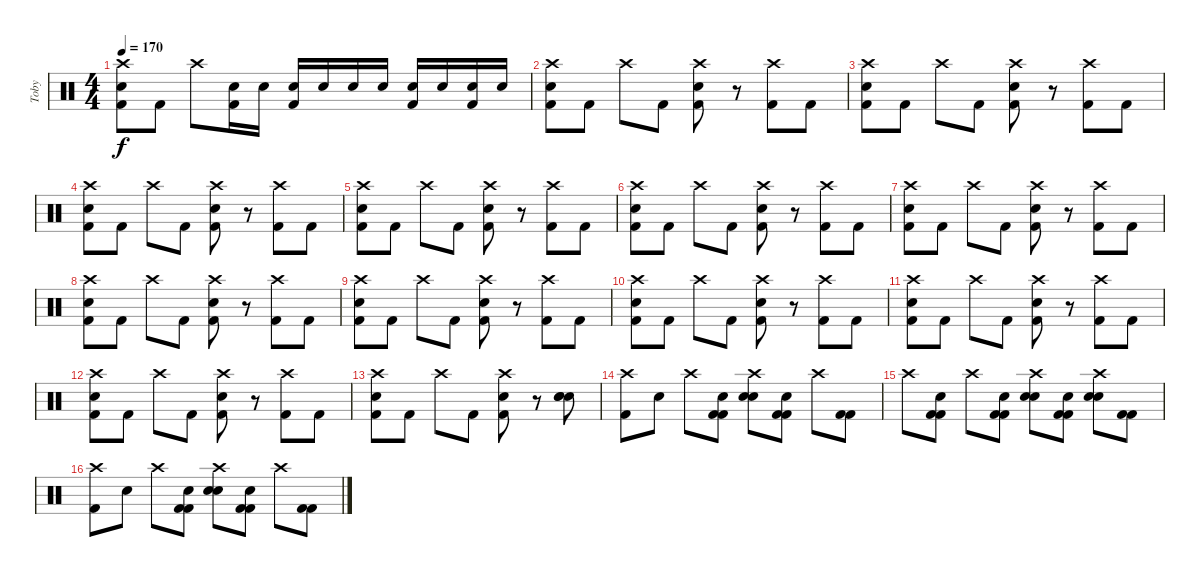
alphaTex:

\track ("Toby" "Toby") {instrument percussion}
\staff {score}
\articulation defaults
\ts (4 4)
\tempo 170
\clef neutral
\ks c
("Crash high (hit)" "Electric Snare (hit)" "Kick (hit) 2").8{dy f} "Kick (hit) 2".8 "Crash high (hit)".8 ("Electric Snare (hit)" "Kick (hit) 2").16 "Electric Snare (hit)".16 ("Electric Snare (hit)" "Kick (hit) 2").16 "Electric Snare (hit)".16 "Electric Snare (hit)".16 "Electric Snare (hit)".16 ("Electric Snare (hit)" "Kick (hit) 2").16 "Electric Snare (hit)".16 ("Electric Snare (hit)" "Kick (hit) 2").16 "Electric Snare (hit)".16 |
("Crash high (hit)" "Electric Snare (hit)" "Kick (hit) 2").8 "Kick (hit) 2".8 "Crash high (hit)".8 "Kick (hit) 2".8 ("Crash high (hit)" "Electric Snare (hit)" "Kick (hit) 2").8 r.8 ("Crash high (hit)" "Kick (hit) 2").8 "Kick (hit) 2".8 |
("Crash high (hit)" "Electric Snare (hit)" "Kick (hit) 2").8 "Kick (hit) 2".8 "Crash high (hit)".8 "Kick (hit) 2".8 ("Crash high (hit)" "Electric Snare (hit)" "Kick (hit) 2").8 r.8 ("Crash high (hit)" "Kick (hit) 2").8 "Kick (hit) 2".8 |
("Crash high (hit)" "Electric Snare (hit)" "Kick (hit) 2").8 "Kick (hit) 2".8 "Crash high (hit)".8 "Kick (hit) 2".8 ("Crash high (hit)" "Electric Snare (hit)" "Kick (hit) 2").8 r.8 ("Crash high (hit)" "Kick (hit) 2").8 "Kick (hit) 2".8 |
("Crash high (hit)" "Electric Snare (hit)" "Kick (hit) 2").8 "Kick (hit) 2".8 "Crash high (hit)".8 "Kick (hit) 2".8 ("Crash high (hit)" "Electric Snare (hit)" "Kick (hit) 2").8 r.8 ("Crash high (hit)" "Kick (hit) 2").8 "Kick (hit) 2".8 |
("Crash high (hit)" "Electric Snare (hit)" "Kick (hit) 2").8 "Kick (hit) 2".8 "Crash high (hit)".8 "Kick (hit) 2".8 ("Crash high (hit)" "Electric Snare (hit)" "Kick (hit) 2").8 r.8 ("Crash high (hit)" "Kick (hit) 2").8 "Kick (hit) 2".8 |
("Crash high (hit)" "Electric Snare (hit)" "Kick (hit) 2").8 "Kick (hit) 2".8 "Crash high (hit)".8 "Kick (hit) 2".8 ("Crash high (hit)" "Electric Snare (hit)" "Kick (hit) 2").8 r.8 ("Crash high (hit)" "Kick (hit) 2").8 "Kick (hit) 2".8 |
("Crash high (hit)" "Electric Snare (hit)" "Kick (hit) 2").8 "Kick (hit) 2".8 "Crash high (hit)".8 "Kick (hit) 2".8 ("Crash high (hit)" "Electric Snare (hit)" "Kick (hit) 2").8 r.8 ("Crash high (hit)" "Kick (hit) 2").8 "Kick (hit) 2".8 |
("Crash high (hit)" "Electric Snare (hit)" "Kick (hit) 2").8 "Kick (hit) 2".8 "Crash high (hit)".8 "Kick (hit) 2".8 ("Crash high (hit)" "Electric Snare (hit)" "Kick (hit) 2").8 r.8 ("Crash high (hit)" "Kick (hit) 2").8 "Kick (hit) 2".8 |
("Crash high (hit)" "Electric Snare (hit)" "Kick (hit) 2").8 "Kick (hit) 2".8 "Crash high (hit)".8 "Kick (hit) 2".8 ("Crash high (hit)" "Electric Snare (hit)" "Kick (hit) 2").8 r.8 ("Crash high (hit)" "Kick (hit) 2").8 "Kick (hit) 2".8 |
("Crash high (hit)" "Electric Snare (hit)" "Kick (hit) 2").8 "Kick (hit) 2".8 "Crash high (hit)".8 "Kick (hit) 2".8 ("Crash high (hit)" "Electric Snare (hit)" "Kick (hit) 2").8 r.8 ("Crash high (hit)" "Kick (hit) 2").8 "Kick (hit) 2".8 |
("Crash high (hit)" "Electric Snare (hit)" "Kick (hit) 2").8 "Kick (hit) 2".8 "Crash high (hit)".8 "Kick (hit) 2".8 ("Crash high (hit)" "Electric Snare (hit)" "Kick (hit) 2").8 r.8 ("Crash high (hit)" "Kick (hit) 2").8 "Kick (hit) 2".8 |
("Crash high (hit)" "Electric Snare (hit)" "Kick (hit) 2").8 "Kick (hit) 2".8 "Crash high (hit)".8 "Kick (hit) 2".8 ("Crash high (hit)" "Electric Snare (hit)" "Kick (hit) 2").8 r.8 ("Electric Snare (hit)" "Electric Snare (hit)" "Electric Snare (hit)").8 |
("Crash high (hit)" "Kick (hit) 2").8 "Snare (hit)".8 "Crash high (hit)".8 ("Snare (hit)" "Kick (hit) 2" "Kick (hit) 2").8 ("Crash high (hit)" "Electric Snare (hit)" "Electric Snare (hit)").8 ("Snare (hit)" "Kick (hit) 2" "Kick (hit) 2").8 "Crash high (hit)".8 ("Kick (hit) 2" "Kick (hit) 2").8 |
"Crash high (hit)".8 ("Snare (hit)" "Kick (hit) 2" "Kick (hit) 2").8 "Crash high (hit)".8 ("Snare (hit)" "Kick (hit) 2" "Kick (hit) 2").8 ("Crash high (hit)" "Electric Snare (hit)" "Electric Snare (hit)").8 ("Snare (hit)" "Kick (hit) 2" "Kick (hit) 2").8 ("Crash high (hit)" "Electric Snare (hit)" "Electric Snare (hit)").8 ("Kick (hit) 2" "Kick (hit) 2").8 |
("Crash high (hit)" "Kick (hit) 2").8 "Snare (hit)".8 "Crash high (hit)".8 ("Snare (hit)" "Kick (hit) 2" "Kick (hit) 2").8 ("Crash high (hit)" "Electric Snare (hit)" "Electric Snare (hit)").8 ("Snare (hit)" "Kick (hit) 2" "Kick (hit) 2").8 "Crash high (hit)".8 ("Kick (hit) 2" "Kick (hit) 2").8
